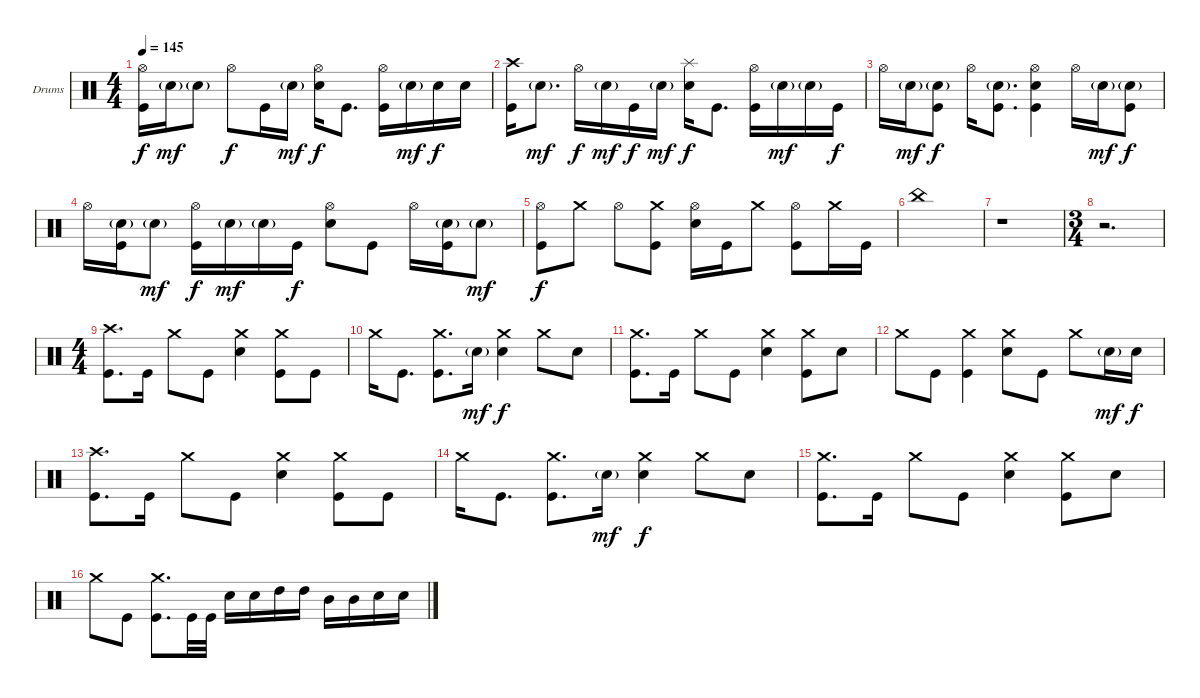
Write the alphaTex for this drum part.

\bracketExtendMode groupsimilarinstruments
\firstSystemTrackNameOrientation horizontal
\otherSystemsTrackNameOrientation horizontal
\track ("Drumkit" "Drums") {instrument percussion}
\staff {score}
\articulation defaults
\ts (4 4)
\tempo 145
\clef neutral
\ks c
("Hi-Hat (open)" "Kick (hit)").16{dy f} "Snare (hit) 2"{g}.16{dy mf} "Snare (hit) 2"{g}.8 "Hi-Hat (open)".8{dy f} "Kick (hit)".16 "Snare (hit) 2"{g}.16{dy mf} ("Hi-Hat (open)" "Snare (hit) 2").16{dy f} "Kick (hit)".8{d} ("Hi-Hat (open)" "Kick (hit)").16 "Snare (hit) 2"{g}.16{dy mf} "Snare (hit) 2".16{dy f} "Snare (hit) 2".16 |
("Crash high (hit)" "Kick (hit)").16 "Snare (hit) 2"{g}.8{d dy mf} "Hi-Hat (open)".16{dy f} "Snare (hit) 2"{g}.16{dy mf} "Kick (hit)".16{dy f} "Snare (hit) 2"{g}.16{dy mf} ("Splash (hit)" "Snare (hit) 2").16{dy f} "Kick (hit)".8{d} ("Hi-Hat (open)" "Kick (hit)").16 "Snare (hit) 2"{g}.16{dy mf} "Snare (hit) 2"{g}.16 "Kick (hit)".16{dy f} |
"Hi-Hat (open)".16 "Snare (hit) 2"{g}.16{dy mf} ("Snare (hit) 2"{g} "Kick (hit)").8{dy f} "Hi-Hat (open)".16 ("Snare (hit) 2"{g} "Kick (hit)").8{d} ("Hi-Hat (open)" "Snare (hit) 2" "Kick (hit)").4 "Hi-Hat (open)".16 "Snare (hit) 2"{g}.16{dy mf} ("Snare (hit) 2"{g} "Kick (hit)").8{dy f} |
"Hi-Hat (open)".16 ("Snare (hit) 2"{g} "Kick (hit)").16 "Snare (hit) 2"{g}.8{dy mf} ("Hi-Hat (open)" "Kick (hit)").16{dy f} "Snare (hit) 2"{g}.16{dy mf} "Snare (hit) 2"{g}.16 "Kick (hit)".16{dy f} ("Hi-Hat (open)" "Snare (hit) 2").8 "Kick (hit)".8 "Hi-Hat (open)".16 ("Snare (hit) 2"{g} "Kick (hit)").16 "Snare (hit) 2"{g}.8{dy mf} |
("Hi-Hat (open)" "Kick (hit)").8{dy f} "Crash medium (hit)".8 "Hi-Hat (open)".8 ("Crash medium (hit)" "Kick (hit)").8 ("Hi-Hat (open)" "Snare (hit) 2").16 "Kick (hit)".16 "Crash medium (hit)".8 ("Hi-Hat (open)" "Kick (hit)").8 "Crash medium (hit)".16 "Kick (hit)".16 |
"China (hit)".1 |
r.1 |
\ts (3 4)
\beaming (8 2 2 2 2)
r.2{d} |
\ts (4 4)
\beaming (8 2 2 2 2)
("Crash high (hit)" "Kick (hit)").8{d} "Kick (hit)".16 "Crash medium (hit)".8 "Kick (hit)".8 ("Crash medium (hit)" "Snare (hit) 2").4 ("Crash medium (hit)" "Kick (hit)").8 "Kick (hit)".8 |
"Crash medium (hit)".16 "Kick (hit)".8{d} ("Crash medium (hit)" "Kick (hit)").8{d} "Snare (hit) 2"{g}.16{dy mf} ("Crash medium (hit)" "Snare (hit) 2").4{dy f} "Crash medium (hit)".8 "Snare (hit) 2".8 |
("Crash medium (hit)" "Kick (hit)").8{d} "Kick (hit)".16 "Crash medium (hit)".8 "Kick (hit)".8 ("Crash medium (hit)" "Snare (hit) 2").4 ("Crash medium (hit)" "Kick (hit)").8 "Snare (hit) 2".8 |
"Crash medium (hit)".8 "Kick (hit)".8 ("Crash medium (hit)" "Kick (hit)").4 ("Crash medium (hit)" "Snare (hit) 2").8 "Kick (hit)".8 "Crash medium (hit)".8 "Snare (hit) 2"{g}.16{dy mf} "Snare (hit) 2".16{dy f} |
("Crash high (hit)" "Kick (hit)").8{d} "Kick (hit)".16 "Crash medium (hit)".8 "Kick (hit)".8 ("Crash medium (hit)" "Snare (hit) 2").4 ("Crash medium (hit)" "Kick (hit)").8 "Kick (hit)".8 |
"Crash medium (hit)".16 "Kick (hit)".8{d} ("Crash medium (hit)" "Kick (hit)").8{d} "Snare (hit) 2"{g}.16{dy mf} ("Crash medium (hit)" "Snare (hit) 2").4{dy f} "Crash medium (hit)".8 "Snare (hit) 2".8 |
("Crash medium (hit)" "Kick (hit)").8{d} "Kick (hit)".16 "Crash medium (hit)".8 "Kick (hit)".8 ("Crash medium (hit)" "Snare (hit) 2").4 ("Crash medium (hit)" "Kick (hit)").8 "Snare (hit) 2".8 |
"Crash medium (hit)".8 "Kick (hit)".8 ("Crash medium (hit)" "Kick (hit)").8{d} "Kick (hit)".32 "Kick (hit)".32 "Snare (hit) 2".16 "Snare (hit) 2".16 "High Tom (hit)".16 "High Tom (hit)".16 "Mid Tom (hit)".16 "Mid Tom (hit)".16 "Snare (hit) 2".16 "Snare (hit) 2".16
